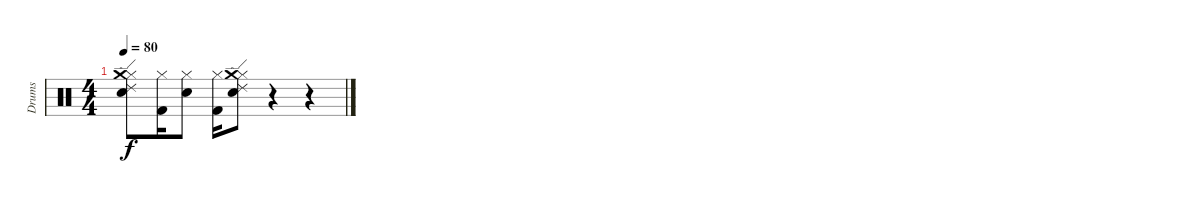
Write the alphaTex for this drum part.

\track ("Drums" "Drums") {instrument percussion}
\staff {score}
\articulation defaults
\ts (4 4)
\tempo 80
\clef neutral
\ks c
("Hi-Hat (closed)" "Electric Snare (hit)" "Crash medium (hit)" "Ride (edge) 2").8{dy f} ("Hi-Hat (closed)" "Kick (hit) 2").16 ("Hi-Hat (closed)" "Electric Snare (hit)").8 ("Hi-Hat (closed)" "Kick (hit) 2").16 ("Hi-Hat (closed)" "Electric Snare (hit)" "Ride (edge) 2" "Crash medium (hit)").8 r.4 r.4
